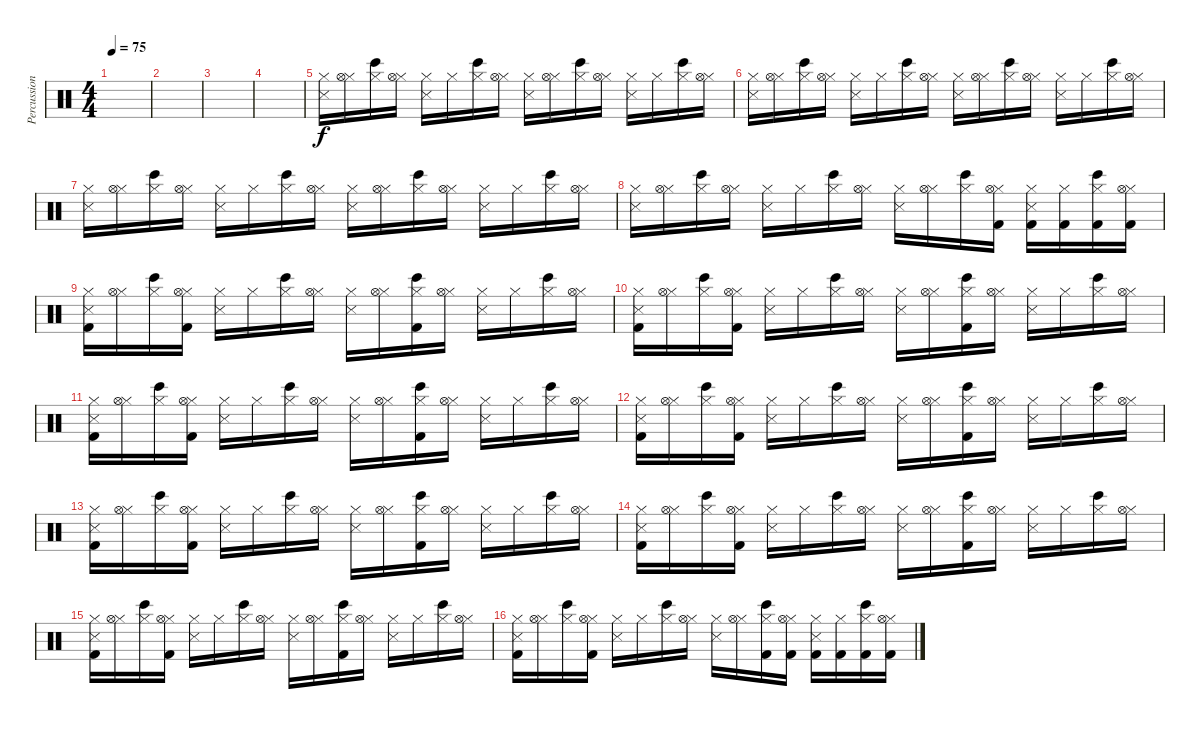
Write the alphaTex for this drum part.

\track ("Percussion" "Percussion") {instrument percussion}
\staff {score}
\articulation defaults
\ts (4 4)
\tempo 75
\clef neutral
\ks c
|
|
|
|
("Hi-Hat (closed)" "Metronome (hit)").16 ("Hi-Hat (closed)" "Hi-Hat (open)").16 ("Hi-Hat (closed)" "Bongo High (hit)").16 ("Hi-Hat (closed)" "Hi-Hat (open)").16 ("Hi-Hat (closed)" "Metronome (hit)").16 "Hi-Hat (closed)".16 ("Hi-Hat (closed)" "Bongo High (hit)").16 ("Hi-Hat (closed)" "Hi-Hat (open)").16 ("Hi-Hat (closed)" "Metronome (hit)").16 ("Hi-Hat (closed)" "Hi-Hat (open)").16 ("Hi-Hat (closed)" "Bongo High (hit)").16 ("Hi-Hat (closed)" "Hi-Hat (open)").16 ("Hi-Hat (closed)" "Metronome (hit)").16 "Hi-Hat (closed)".16 ("Hi-Hat (closed)" "Bongo High (hit)").16 ("Hi-Hat (closed)" "Hi-Hat (open)").16 |
("Hi-Hat (closed)" "Metronome (hit)").16 ("Hi-Hat (closed)" "Hi-Hat (open)").16 ("Hi-Hat (closed)" "Bongo High (hit)").16 ("Hi-Hat (closed)" "Hi-Hat (open)").16 ("Hi-Hat (closed)" "Metronome (hit)").16 "Hi-Hat (closed)".16 ("Hi-Hat (closed)" "Bongo High (hit)").16 ("Hi-Hat (closed)" "Hi-Hat (open)").16 ("Hi-Hat (closed)" "Metronome (hit)").16 ("Hi-Hat (closed)" "Hi-Hat (open)").16 ("Hi-Hat (closed)" "Bongo High (hit)").16 ("Hi-Hat (closed)" "Hi-Hat (open)").16 ("Hi-Hat (closed)" "Metronome (hit)").16 "Hi-Hat (closed)".16 ("Hi-Hat (closed)" "Bongo High (hit)").16 ("Hi-Hat (closed)" "Hi-Hat (open)").16 |
("Hi-Hat (closed)" "Metronome (hit)").16 ("Hi-Hat (closed)" "Hi-Hat (open)").16 ("Hi-Hat (closed)" "Bongo High (hit)").16 ("Hi-Hat (closed)" "Hi-Hat (open)").16 ("Hi-Hat (closed)" "Metronome (hit)").16 "Hi-Hat (closed)".16 ("Hi-Hat (closed)" "Bongo High (hit)").16 ("Hi-Hat (closed)" "Hi-Hat (open)").16 ("Hi-Hat (closed)" "Metronome (hit)").16 ("Hi-Hat (closed)" "Hi-Hat (open)").16 ("Hi-Hat (closed)" "Bongo High (hit)").16 ("Hi-Hat (closed)" "Hi-Hat (open)").16 ("Hi-Hat (closed)" "Metronome (hit)").16 "Hi-Hat (closed)".16 ("Hi-Hat (closed)" "Bongo High (hit)").16 ("Hi-Hat (closed)" "Hi-Hat (open)").16 |
("Hi-Hat (closed)" "Metronome (hit)").16 ("Hi-Hat (closed)" "Hi-Hat (open)").16 ("Hi-Hat (closed)" "Bongo High (hit)").16 ("Hi-Hat (closed)" "Hi-Hat (open)").16 ("Hi-Hat (closed)" "Metronome (hit)").16 "Hi-Hat (closed)".16 ("Hi-Hat (closed)" "Bongo High (hit)").16 ("Hi-Hat (closed)" "Hi-Hat (open)").16 ("Hi-Hat (closed)" "Metronome (hit)").16 ("Hi-Hat (closed)" "Hi-Hat (open)").16 ("Hi-Hat (closed)" "Bongo High (hit)").16 ("Hi-Hat (closed)" "Hi-Hat (open)" "Kick (hit) 2").16 ("Hi-Hat (closed)" "Metronome (hit)" "Kick (hit) 2").16 ("Hi-Hat (closed)" "Kick (hit) 2").16 ("Hi-Hat (closed)" "Bongo High (hit)" "Kick (hit) 2").16 ("Hi-Hat (closed)" "Hi-Hat (open)" "Kick (hit) 2").16 |
("Hi-Hat (closed)" "Metronome (hit)" "Kick (hit) 2").16 ("Hi-Hat (closed)" "Hi-Hat (open)").16 ("Hi-Hat (closed)" "Bongo High (hit)").16 ("Hi-Hat (closed)" "Hi-Hat (open)" "Kick (hit) 2").16 ("Hi-Hat (closed)" "Metronome (hit)").16 "Hi-Hat (closed)".16 ("Hi-Hat (closed)" "Bongo High (hit)").16 ("Hi-Hat (closed)" "Hi-Hat (open)").16 ("Hi-Hat (closed)" "Metronome (hit)").16 ("Hi-Hat (closed)" "Hi-Hat (open)").16 ("Hi-Hat (closed)" "Bongo High (hit)" "Kick (hit) 2").16 ("Hi-Hat (closed)" "Hi-Hat (open)").16 ("Hi-Hat (closed)" "Metronome (hit)").16 "Hi-Hat (closed)".16 ("Hi-Hat (closed)" "Bongo High (hit)").16 ("Hi-Hat (closed)" "Hi-Hat (open)").16 |
("Hi-Hat (closed)" "Metronome (hit)" "Kick (hit) 2").16 ("Hi-Hat (closed)" "Hi-Hat (open)").16 ("Hi-Hat (closed)" "Bongo High (hit)").16 ("Hi-Hat (closed)" "Hi-Hat (open)" "Kick (hit) 2").16 ("Hi-Hat (closed)" "Metronome (hit)").16 "Hi-Hat (closed)".16 ("Hi-Hat (closed)" "Bongo High (hit)").16 ("Hi-Hat (closed)" "Hi-Hat (open)").16 ("Hi-Hat (closed)" "Metronome (hit)").16 ("Hi-Hat (closed)" "Hi-Hat (open)").16 ("Hi-Hat (closed)" "Bongo High (hit)" "Kick (hit) 2").16 ("Hi-Hat (closed)" "Hi-Hat (open)").16 ("Hi-Hat (closed)" "Metronome (hit)").16 "Hi-Hat (closed)".16 ("Hi-Hat (closed)" "Bongo High (hit)").16 ("Hi-Hat (closed)" "Hi-Hat (open)").16 |
("Hi-Hat (closed)" "Metronome (hit)" "Kick (hit) 2").16 ("Hi-Hat (closed)" "Hi-Hat (open)").16 ("Hi-Hat (closed)" "Bongo High (hit)").16 ("Hi-Hat (closed)" "Hi-Hat (open)" "Kick (hit) 2").16 ("Hi-Hat (closed)" "Metronome (hit)").16 "Hi-Hat (closed)".16 ("Hi-Hat (closed)" "Bongo High (hit)").16 ("Hi-Hat (closed)" "Hi-Hat (open)").16 ("Hi-Hat (closed)" "Metronome (hit)").16 ("Hi-Hat (closed)" "Hi-Hat (open)").16 ("Hi-Hat (closed)" "Bongo High (hit)" "Kick (hit) 2").16 ("Hi-Hat (closed)" "Hi-Hat (open)").16 ("Hi-Hat (closed)" "Metronome (hit)").16 "Hi-Hat (closed)".16 ("Hi-Hat (closed)" "Bongo High (hit)").16 ("Hi-Hat (closed)" "Hi-Hat (open)").16 |
("Hi-Hat (closed)" "Metronome (hit)" "Kick (hit) 2").16 ("Hi-Hat (closed)" "Hi-Hat (open)").16 ("Hi-Hat (closed)" "Bongo High (hit)").16 ("Hi-Hat (closed)" "Hi-Hat (open)" "Kick (hit) 2").16 ("Hi-Hat (closed)" "Metronome (hit)").16 "Hi-Hat (closed)".16 ("Hi-Hat (closed)" "Bongo High (hit)").16 ("Hi-Hat (closed)" "Hi-Hat (open)").16 ("Hi-Hat (closed)" "Metronome (hit)").16 ("Hi-Hat (closed)" "Hi-Hat (open)").16 ("Hi-Hat (closed)" "Bongo High (hit)" "Kick (hit) 2").16 ("Hi-Hat (closed)" "Hi-Hat (open)").16 ("Hi-Hat (closed)" "Metronome (hit)").16 "Hi-Hat (closed)".16 ("Hi-Hat (closed)" "Bongo High (hit)").16 ("Hi-Hat (closed)" "Hi-Hat (open)").16 |
("Hi-Hat (closed)" "Metronome (hit)" "Kick (hit) 2").16 ("Hi-Hat (closed)" "Hi-Hat (open)").16 ("Hi-Hat (closed)" "Bongo High (hit)").16 ("Hi-Hat (closed)" "Hi-Hat (open)" "Kick (hit) 2").16 ("Hi-Hat (closed)" "Metronome (hit)").16 "Hi-Hat (closed)".16 ("Hi-Hat (closed)" "Bongo High (hit)").16 ("Hi-Hat (closed)" "Hi-Hat (open)").16 ("Hi-Hat (closed)" "Metronome (hit)").16 ("Hi-Hat (closed)" "Hi-Hat (open)").16 ("Hi-Hat (closed)" "Bongo High (hit)" "Kick (hit) 2").16 ("Hi-Hat (closed)" "Hi-Hat (open)").16 ("Hi-Hat (closed)" "Metronome (hit)").16 "Hi-Hat (closed)".16 ("Hi-Hat (closed)" "Bongo High (hit)").16 ("Hi-Hat (closed)" "Hi-Hat (open)").16 |
("Hi-Hat (closed)" "Metronome (hit)" "Kick (hit) 2").16 ("Hi-Hat (closed)" "Hi-Hat (open)").16 ("Hi-Hat (closed)" "Bongo High (hit)").16 ("Hi-Hat (closed)" "Hi-Hat (open)" "Kick (hit) 2").16 ("Hi-Hat (closed)" "Metronome (hit)").16 "Hi-Hat (closed)".16 ("Hi-Hat (closed)" "Bongo High (hit)").16 ("Hi-Hat (closed)" "Hi-Hat (open)").16 ("Hi-Hat (closed)" "Metronome (hit)").16 ("Hi-Hat (closed)" "Hi-Hat (open)").16 ("Hi-Hat (closed)" "Bongo High (hit)" "Kick (hit) 2").16 ("Hi-Hat (closed)" "Hi-Hat (open)").16 ("Hi-Hat (closed)" "Metronome (hit)").16 "Hi-Hat (closed)".16 ("Hi-Hat (closed)" "Bongo High (hit)").16 ("Hi-Hat (closed)" "Hi-Hat (open)").16 |
("Hi-Hat (closed)" "Metronome (hit)" "Kick (hit) 2").16 ("Hi-Hat (closed)" "Hi-Hat (open)").16 ("Hi-Hat (closed)" "Bongo High (hit)").16 ("Hi-Hat (closed)" "Hi-Hat (open)" "Kick (hit) 2").16 ("Hi-Hat (closed)" "Metronome (hit)").16 "Hi-Hat (closed)".16 ("Hi-Hat (closed)" "Bongo High (hit)").16 ("Hi-Hat (closed)" "Hi-Hat (open)").16 ("Hi-Hat (closed)" "Metronome (hit)").16 ("Hi-Hat (closed)" "Hi-Hat (open)").16 ("Hi-Hat (closed)" "Bongo High (hit)" "Kick (hit) 2").16 ("Hi-Hat (closed)" "Hi-Hat (open)").16 ("Hi-Hat (closed)" "Metronome (hit)").16 "Hi-Hat (closed)".16 ("Hi-Hat (closed)" "Bongo High (hit)").16 ("Hi-Hat (closed)" "Hi-Hat (open)").16 |
("Hi-Hat (closed)" "Metronome (hit)" "Kick (hit) 2").16 ("Hi-Hat (closed)" "Hi-Hat (open)").16 ("Hi-Hat (closed)" "Bongo High (hit)").16 ("Hi-Hat (closed)" "Hi-Hat (open)" "Kick (hit) 2").16 ("Hi-Hat (closed)" "Metronome (hit)").16 "Hi-Hat (closed)".16 ("Hi-Hat (closed)" "Bongo High (hit)").16 ("Hi-Hat (closed)" "Hi-Hat (open)").16 ("Hi-Hat (closed)" "Metronome (hit)").16 ("Hi-Hat (closed)" "Hi-Hat (open)").16 ("Hi-Hat (closed)" "Bongo High (hit)" "Kick (hit) 2").16 ("Hi-Hat (closed)" "Hi-Hat (open)" "Kick (hit) 2").16 ("Hi-Hat (closed)" "Metronome (hit)" "Kick (hit) 2").16 ("Hi-Hat (closed)" "Kick (hit) 2").16 ("Hi-Hat (closed)" "Bongo High (hit)" "Kick (hit) 2").16 ("Hi-Hat (closed)" "Hi-Hat (open)" "Kick (hit) 2").16
